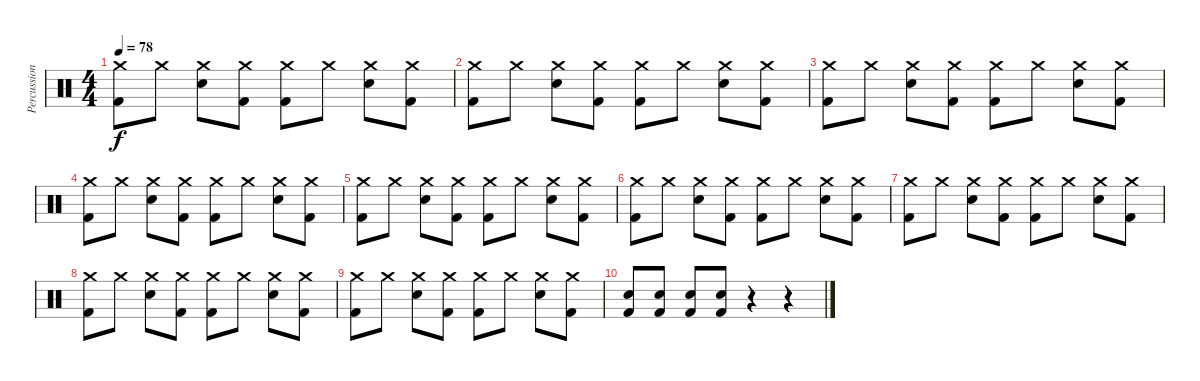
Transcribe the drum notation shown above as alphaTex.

\track ("Percussion" "Percussion") {instrument percussion}
\staff {score}
\articulation defaults
\ts (4 4)
\tempo 78
\clef neutral
\ks c
("Crash medium (hit)" "Kick (hit) 2").8{dy f} "Crash medium (hit)".8 ("Crash medium (hit)" "Snare (hit) 2").8 ("Crash medium (hit)" "Kick (hit) 2").8 ("Crash medium (hit)" "Kick (hit) 2").8 "Crash medium (hit)".8 ("Crash medium (hit)" "Snare (hit) 2").8 ("Crash medium (hit)" "Kick (hit) 2").8 |
("Crash medium (hit)" "Kick (hit) 2").8{volume 16} "Crash medium (hit)".8 ("Crash medium (hit)" "Snare (hit) 2").8 ("Crash medium (hit)" "Kick (hit) 2").8 ("Crash medium (hit)" "Kick (hit) 2").8 "Crash medium (hit)".8 ("Crash medium (hit)" "Snare (hit) 2").8 ("Crash medium (hit)" "Kick (hit) 2").8 |
("Crash medium (hit)" "Kick (hit) 2").8 "Crash medium (hit)".8 ("Crash medium (hit)" "Snare (hit) 2").8 ("Crash medium (hit)" "Kick (hit) 2").8 ("Crash medium (hit)" "Kick (hit) 2").8 "Crash medium (hit)".8 ("Crash medium (hit)" "Snare (hit) 2").8 ("Crash medium (hit)" "Kick (hit) 2").8 |
("Crash medium (hit)" "Kick (hit) 2").8 "Crash medium (hit)".8 ("Crash medium (hit)" "Snare (hit) 2").8 ("Crash medium (hit)" "Kick (hit) 2").8 ("Crash medium (hit)" "Kick (hit) 2").8 "Crash medium (hit)".8 ("Crash medium (hit)" "Snare (hit) 2").8 ("Crash medium (hit)" "Kick (hit) 2").8 |
("Crash medium (hit)" "Kick (hit) 2").8{volume 16} "Crash medium (hit)".8 ("Crash medium (hit)" "Snare (hit) 2").8 ("Crash medium (hit)" "Kick (hit) 2").8 ("Crash medium (hit)" "Kick (hit) 2").8 "Crash medium (hit)".8 ("Crash medium (hit)" "Snare (hit) 2").8 ("Crash medium (hit)" "Kick (hit) 2").8 |
("Crash medium (hit)" "Kick (hit) 2").8 "Crash medium (hit)".8 ("Crash medium (hit)" "Snare (hit) 2").8 ("Crash medium (hit)" "Kick (hit) 2").8 ("Crash medium (hit)" "Kick (hit) 2").8 "Crash medium (hit)".8 ("Crash medium (hit)" "Snare (hit) 2").8 ("Crash medium (hit)" "Kick (hit) 2").8 |
("Crash medium (hit)" "Kick (hit) 2").8 "Crash medium (hit)".8 ("Crash medium (hit)" "Snare (hit) 2").8 ("Crash medium (hit)" "Kick (hit) 2").8 ("Crash medium (hit)" "Kick (hit) 2").8 "Crash medium (hit)".8 ("Crash medium (hit)" "Snare (hit) 2").8 ("Crash medium (hit)" "Kick (hit) 2").8 |
("Crash medium (hit)" "Kick (hit) 2").8{volume 16} "Crash medium (hit)".8 ("Crash medium (hit)" "Snare (hit) 2").8 ("Crash medium (hit)" "Kick (hit) 2").8 ("Crash medium (hit)" "Kick (hit) 2").8 "Crash medium (hit)".8 ("Crash medium (hit)" "Snare (hit) 2").8 ("Crash medium (hit)" "Kick (hit) 2").8 |
("Crash medium (hit)" "Kick (hit) 2").8 "Crash medium (hit)".8 ("Crash medium (hit)" "Snare (hit) 2").8 ("Crash medium (hit)" "Kick (hit) 2").8 ("Crash medium (hit)" "Kick (hit) 2").8 "Crash medium (hit)".8 ("Crash medium (hit)" "Snare (hit) 2").8 ("Crash medium (hit)" "Kick (hit) 2").8 |
("Snare (hit) 2" "Kick (hit) 2").8 ("Snare (hit) 2" "Kick (hit) 2").8 ("Snare (hit) 2" "Kick (hit) 2").8 ("Snare (hit) 2" "Kick (hit) 2").8 r.4 r.4
